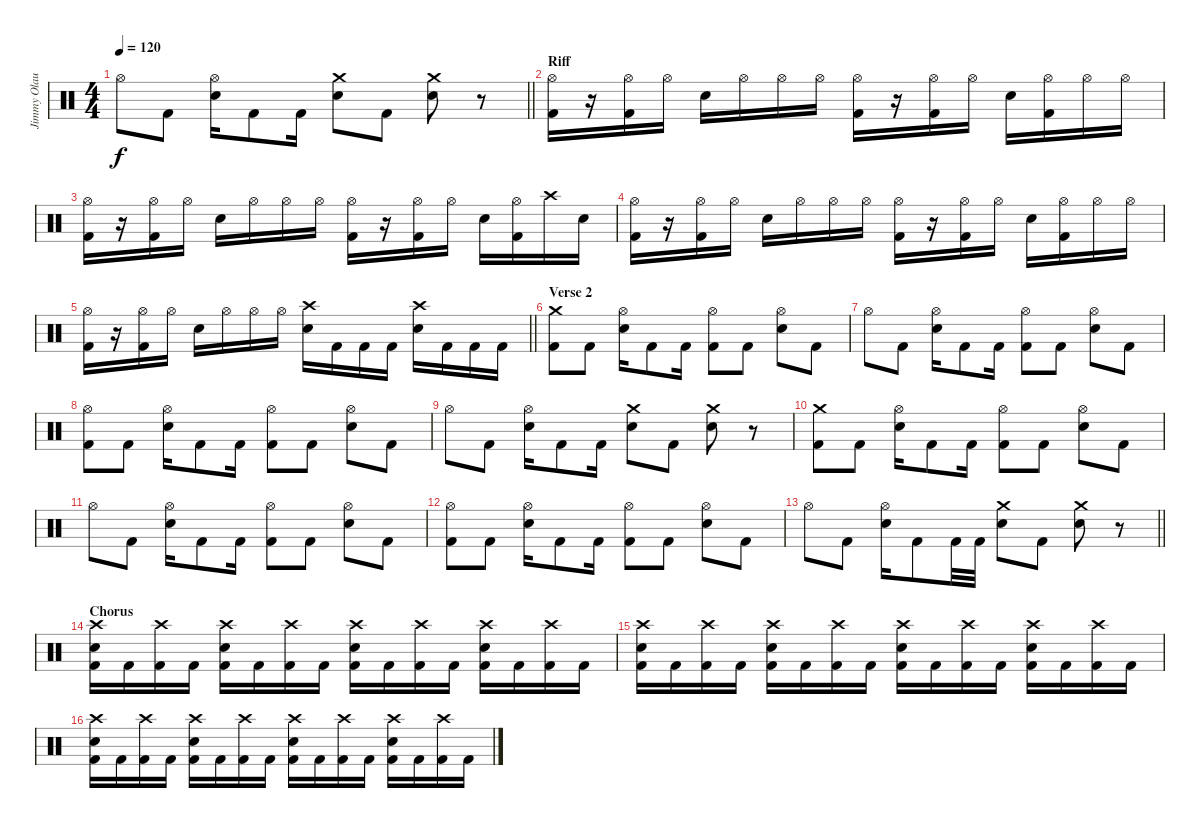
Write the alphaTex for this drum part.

\track ("Jimmy Olausson" "Jimmy Olau") {instrument percussion}
\staff {score}
\articulation defaults
\ts (4 4)
\tempo 120
\clef neutral
\barLineRight lightlight
\ks c "Hi-Hat (open)".8{dy f} "Kick (hit) 2".8
("Hi-Hat (open)" "Snare (hit) 2").16 "Kick (hit) 2".8 "Kick (hit) 2".16 ("Crash medium (hit)" "Snare (hit) 2").8 "Kick (hit) 2".8 ("Crash medium (hit)" "Snare (hit) 2").8 r.8 |
\section ("" "Riff")
("Hi-Hat (open)" "Kick (hit) 2").16 r.16 ("Hi-Hat (open)" "Kick (hit) 2").16 "Hi-Hat (open)".16 "Snare (hit) 2".16 "Hi-Hat (open)".16 "Hi-Hat (open)".16 "Hi-Hat (open)".16 ("Hi-Hat (open)" "Kick (hit) 2").16 r.16 ("Hi-Hat (open)" "Kick (hit) 2").16 "Hi-Hat (open)".16 "Snare (hit) 2".16 ("Hi-Hat (open)" "Kick (hit) 2").16 "Hi-Hat (open)".16 "Hi-Hat (open)".16 |
("Hi-Hat (open)" "Kick (hit) 2").16 r.16 ("Hi-Hat (open)" "Kick (hit) 2").16 "Hi-Hat (open)".16 "Snare (hit) 2".16 "Hi-Hat (open)".16 "Hi-Hat (open)".16 "Hi-Hat (open)".16 ("Hi-Hat (open)" "Kick (hit) 2").16 r.16 ("Hi-Hat (open)" "Kick (hit) 2").16 "Hi-Hat (open)".16 "Snare (hit) 2".16 ("Hi-Hat (open)" "Kick (hit) 2").16 "Crash high (hit)".16 "Snare (hit) 2".16 |
("Hi-Hat (open)" "Kick (hit) 2").16 r.16 ("Hi-Hat (open)" "Kick (hit) 2").16 "Hi-Hat (open)".16 "Snare (hit) 2".16 "Hi-Hat (open)".16 "Hi-Hat (open)".16 "Hi-Hat (open)".16 ("Hi-Hat (open)" "Kick (hit) 2").16 r.16 ("Hi-Hat (open)" "Kick (hit) 2").16 "Hi-Hat (open)".16 "Snare (hit) 2".16 ("Hi-Hat (open)" "Kick (hit) 2").16 "Hi-Hat (open)".16 "Hi-Hat (open)".16 |
\barLineRight lightlight
("Hi-Hat (open)" "Kick (hit) 2").16 r.16 ("Hi-Hat (open)" "Kick (hit) 2").16 "Hi-Hat (open)".16 "Snare (hit) 2".16 "Hi-Hat (open)".16 "Hi-Hat (open)".16 "Hi-Hat (open)".16 ("Crash high (hit)" "Snare (hit) 2").16 "Kick (hit) 2".16 "Kick (hit) 2".16 "Kick (hit) 2".16 ("Crash high (hit)" "Snare (hit) 2").16 "Kick (hit) 2".16 "Kick (hit) 2".16 "Kick (hit) 2".16 |
\section ("" "Verse 2")
("Crash medium (hit)" "Kick (hit) 2").8 "Kick (hit) 2".8 ("Hi-Hat (open)" "Snare (hit) 2").16 "Kick (hit) 2".8 "Kick (hit) 2".16 ("Hi-Hat (open)" "Kick (hit) 2").8 "Kick (hit) 2".8 ("Hi-Hat (open)" "Snare (hit) 2").8 "Kick (hit) 2".8 |
"Hi-Hat (open)".8 "Kick (hit) 2".8 ("Hi-Hat (open)" "Snare (hit) 2").16 "Kick (hit) 2".8 "Kick (hit) 2".16 ("Hi-Hat (open)" "Kick (hit) 2").8 "Kick (hit) 2".8 ("Hi-Hat (open)" "Snare (hit) 2").8 "Kick (hit) 2".8 |
("Hi-Hat (open)" "Kick (hit) 2").8 "Kick (hit) 2".8 ("Hi-Hat (open)" "Snare (hit) 2").16 "Kick (hit) 2".8 "Kick (hit) 2".16 ("Hi-Hat (open)" "Kick (hit) 2").8 "Kick (hit) 2".8 ("Hi-Hat (open)" "Snare (hit) 2").8 "Kick (hit) 2".8 |
"Hi-Hat (open)".8 "Kick (hit) 2".8 ("Hi-Hat (open)" "Snare (hit) 2").16 "Kick (hit) 2".8 "Kick (hit) 2".16 ("Crash medium (hit)" "Snare (hit) 2").8 "Kick (hit) 2".8 ("Crash medium (hit)" "Snare (hit) 2").8 r.8 |
("Crash medium (hit)" "Kick (hit) 2").8 "Kick (hit) 2".8 ("Hi-Hat (open)" "Snare (hit) 2").16 "Kick (hit) 2".8 "Kick (hit) 2".16 ("Hi-Hat (open)" "Kick (hit) 2").8 "Kick (hit) 2".8 ("Hi-Hat (open)" "Snare (hit) 2").8 "Kick (hit) 2".8 |
"Hi-Hat (open)".8 "Kick (hit) 2".8 ("Hi-Hat (open)" "Snare (hit) 2").16 "Kick (hit) 2".8 "Kick (hit) 2".16 ("Hi-Hat (open)" "Kick (hit) 2").8 "Kick (hit) 2".8 ("Hi-Hat (open)" "Snare (hit) 2").8 "Kick (hit) 2".8 |
("Hi-Hat (open)" "Kick (hit) 2").8 "Kick (hit) 2".8 ("Hi-Hat (open)" "Snare (hit) 2").16 "Kick (hit) 2".8 "Kick (hit) 2".16 ("Hi-Hat (open)" "Kick (hit) 2").8 "Kick (hit) 2".8 ("Hi-Hat (open)" "Snare (hit) 2").8 "Kick (hit) 2".8 |
\barLineRight lightlight "Hi-Hat (open)".8 "Kick (hit) 2".8
("Hi-Hat (open)" "Snare (hit) 2").16 "Kick (hit) 2".8 "Kick (hit) 2".32 "Kick (hit) 2".32 ("Crash medium (hit)" "Snare (hit) 2").8 "Kick (hit) 2".8 ("Crash medium (hit)" "Snare (hit) 2").8 r.8 |
\section ("" "Chorus")
("Crash high (hit)" "Snare (hit) 2" "Kick (hit) 2").16 "Kick (hit) 2".16 ("Crash high (hit)" "Kick (hit) 2").16 "Kick (hit) 2".16 ("Crash high (hit)" "Snare (hit) 2" "Kick (hit) 2").16 "Kick (hit) 2".16 ("Crash high (hit)" "Kick (hit) 2").16 "Kick (hit) 2".16 ("Crash high (hit)" "Snare (hit) 2" "Kick (hit) 2").16 "Kick (hit) 2".16 ("Crash high (hit)" "Kick (hit) 2").16 "Kick (hit) 2".16 ("Crash high (hit)" "Snare (hit) 2" "Kick (hit) 2").16 "Kick (hit) 2".16 ("Crash high (hit)" "Kick (hit) 2").16 "Kick (hit) 2".16 |
("Crash high (hit)" "Snare (hit) 2" "Kick (hit) 2").16 "Kick (hit) 2".16 ("Crash high (hit)" "Kick (hit) 2").16 "Kick (hit) 2".16 ("Crash high (hit)" "Snare (hit) 2" "Kick (hit) 2").16 "Kick (hit) 2".16 ("Crash high (hit)" "Kick (hit) 2").16 "Kick (hit) 2".16 ("Crash high (hit)" "Snare (hit) 2" "Kick (hit) 2").16 "Kick (hit) 2".16 ("Crash high (hit)" "Kick (hit) 2").16 "Kick (hit) 2".16 ("Crash high (hit)" "Snare (hit) 2" "Kick (hit) 2").16 "Kick (hit) 2".16 ("Crash high (hit)" "Kick (hit) 2").16 "Kick (hit) 2".16 |
("Crash high (hit)" "Snare (hit) 2" "Kick (hit) 2").16 "Kick (hit) 2".16 ("Crash high (hit)" "Kick (hit) 2").16 "Kick (hit) 2".16 ("Crash high (hit)" "Snare (hit) 2" "Kick (hit) 2").16 "Kick (hit) 2".16 ("Crash high (hit)" "Kick (hit) 2").16 "Kick (hit) 2".16 ("Crash high (hit)" "Snare (hit) 2" "Kick (hit) 2").16 "Kick (hit) 2".16 ("Crash high (hit)" "Kick (hit) 2").16 "Kick (hit) 2".16 ("Crash high (hit)" "Snare (hit) 2" "Kick (hit) 2").16 "Kick (hit) 2".16 ("Crash high (hit)" "Kick (hit) 2").16 "Kick (hit) 2".16
